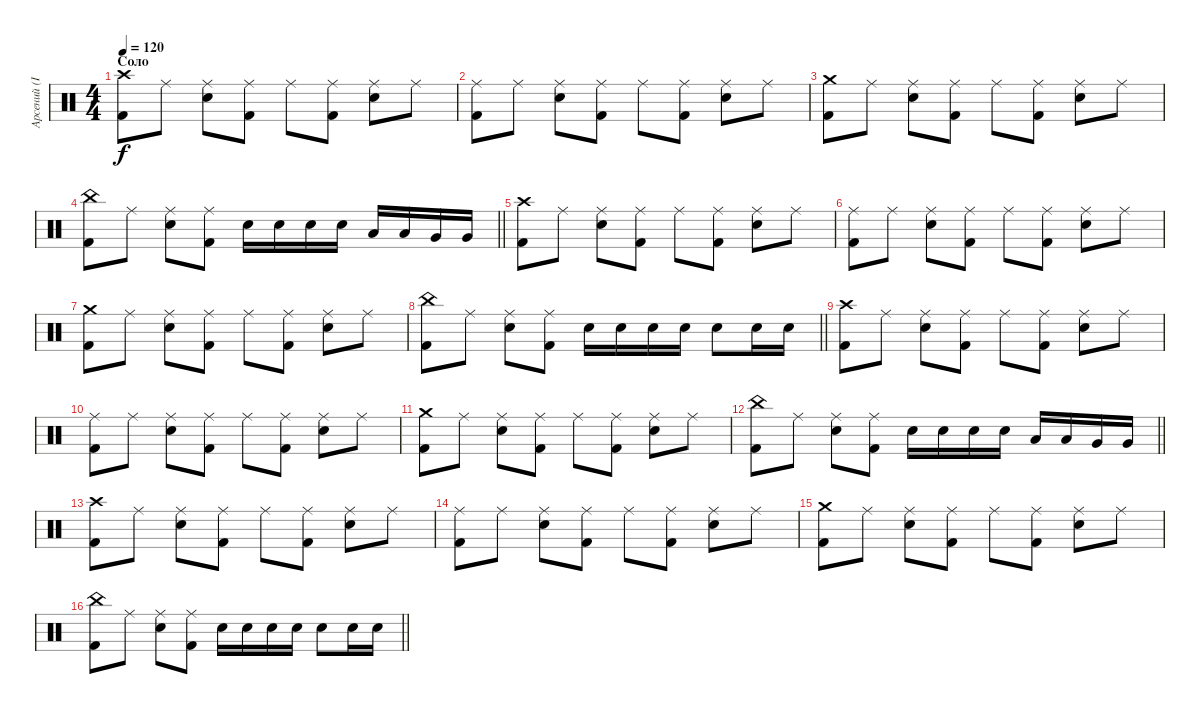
\track ("Арсений (Idler) Ударные" "Арсений (I") {instrument percussion}
\staff {score}
\articulation defaults
\ts (4 4)
\section ("" "Соло")
\tempo 120
\clef neutral
\ks c
("Crash high (hit)" "Kick (hit) 2").8{dy f} "Ride (middle)".8 ("Ride (middle)" "Snare (hit) 2").8 ("Ride (middle)" "Kick (hit) 2").8 "Ride (middle)".8 ("Ride (middle)" "Kick (hit) 2").8 ("Ride (middle)" "Snare (hit) 2").8 "Ride (middle)".8 |
("Ride (middle)" "Kick (hit) 2").8 "Ride (middle)".8 ("Ride (middle)" "Snare (hit) 2").8 ("Ride (middle)" "Kick (hit) 2").8 "Ride (middle)".8 ("Ride (middle)" "Kick (hit) 2").8 ("Ride (middle)" "Snare (hit) 2").8 "Ride (middle)".8 |
("Crash medium (hit)" "Kick (hit) 2").8 "Ride (middle)".8 ("Ride (middle)" "Snare (hit) 2").8 ("Ride (middle)" "Kick (hit) 2").8 "Ride (middle)".8 ("Ride (middle)" "Kick (hit) 2").8 ("Ride (middle)" "Snare (hit) 2").8 "Ride (middle)".8 |
\barLineRight lightlight
("China (hit)" "Kick (hit) 2").8 "Ride (middle)".8 ("Ride (middle)" "Snare (hit) 2").8 ("Ride (middle)" "Kick (hit) 2").8 "Snare (hit) 2".16 "Snare (hit) 2".16 "Snare (hit) 2".16 "Snare (hit) 2".16 "Low Tom (hit)".16 "Low Tom (hit)".16 "Very Low Tom (hit)".16 "Very Low Tom (hit)".16 |
("Crash high (hit)" "Kick (hit) 2").8 "Ride (middle)".8 ("Ride (middle)" "Snare (hit) 2").8 ("Ride (middle)" "Kick (hit) 2").8 "Ride (middle)".8 ("Ride (middle)" "Kick (hit) 2").8 ("Ride (middle)" "Snare (hit) 2").8 "Ride (middle)".8 |
("Ride (middle)" "Kick (hit) 2").8 "Ride (middle)".8 ("Ride (middle)" "Snare (hit) 2").8 ("Ride (middle)" "Kick (hit) 2").8 "Ride (middle)".8 ("Ride (middle)" "Kick (hit) 2").8 ("Ride (middle)" "Snare (hit) 2").8 "Ride (middle)".8 |
("Crash medium (hit)" "Kick (hit) 2").8 "Ride (middle)".8 ("Ride (middle)" "Snare (hit) 2").8 ("Ride (middle)" "Kick (hit) 2").8 "Ride (middle)".8 ("Ride (middle)" "Kick (hit) 2").8 ("Ride (middle)" "Snare (hit) 2").8 "Ride (middle)".8 |
\barLineRight lightlight
("China (hit)" "Kick (hit) 2").8 "Ride (middle)".8 ("Ride (middle)" "Snare (hit) 2").8 ("Ride (middle)" "Kick (hit) 2").8 "Snare (hit) 2".16 "Snare (hit) 2".16 "Snare (hit) 2".16 "Snare (hit) 2".16 "Snare (hit) 2".8 "Snare (hit) 2".16 "Snare (hit) 2".16 |
("Crash high (hit)" "Kick (hit) 2").8 "Ride (middle)".8 ("Ride (middle)" "Snare (hit) 2").8 ("Ride (middle)" "Kick (hit) 2").8 "Ride (middle)".8 ("Ride (middle)" "Kick (hit) 2").8 ("Ride (middle)" "Snare (hit) 2").8 "Ride (middle)".8 |
("Ride (middle)" "Kick (hit) 2").8 "Ride (middle)".8 ("Ride (middle)" "Snare (hit) 2").8 ("Ride (middle)" "Kick (hit) 2").8 "Ride (middle)".8 ("Ride (middle)" "Kick (hit) 2").8 ("Ride (middle)" "Snare (hit) 2").8 "Ride (middle)".8 |
("Crash medium (hit)" "Kick (hit) 2").8 "Ride (middle)".8 ("Ride (middle)" "Snare (hit) 2").8 ("Ride (middle)" "Kick (hit) 2").8 "Ride (middle)".8 ("Ride (middle)" "Kick (hit) 2").8 ("Ride (middle)" "Snare (hit) 2").8 "Ride (middle)".8 |
\barLineRight lightlight
("China (hit)" "Kick (hit) 2").8 "Ride (middle)".8 ("Ride (middle)" "Snare (hit) 2").8 ("Ride (middle)" "Kick (hit) 2").8 "Snare (hit) 2".16 "Snare (hit) 2".16 "Snare (hit) 2".16 "Snare (hit) 2".16 "Low Tom (hit)".16 "Low Tom (hit)".16 "Very Low Tom (hit)".16 "Very Low Tom (hit)".16 |
("Crash high (hit)" "Kick (hit) 2").8 "Ride (middle)".8 ("Ride (middle)" "Snare (hit) 2").8 ("Ride (middle)" "Kick (hit) 2").8 "Ride (middle)".8 ("Ride (middle)" "Kick (hit) 2").8 ("Ride (middle)" "Snare (hit) 2").8 "Ride (middle)".8 |
("Ride (middle)" "Kick (hit) 2").8 "Ride (middle)".8 ("Ride (middle)" "Snare (hit) 2").8 ("Ride (middle)" "Kick (hit) 2").8 "Ride (middle)".8 ("Ride (middle)" "Kick (hit) 2").8 ("Ride (middle)" "Snare (hit) 2").8 "Ride (middle)".8 |
("Crash medium (hit)" "Kick (hit) 2").8 "Ride (middle)".8 ("Ride (middle)" "Snare (hit) 2").8 ("Ride (middle)" "Kick (hit) 2").8 "Ride (middle)".8 ("Ride (middle)" "Kick (hit) 2").8 ("Ride (middle)" "Snare (hit) 2").8 "Ride (middle)".8 |
\barLineRight lightlight
("China (hit)" "Kick (hit) 2").8 "Ride (middle)".8 ("Ride (middle)" "Snare (hit) 2").8 ("Ride (middle)" "Kick (hit) 2").8 "Snare (hit) 2".16 "Snare (hit) 2".16 "Snare (hit) 2".16 "Snare (hit) 2".16 "Snare (hit) 2".8 "Snare (hit) 2".16 "Snare (hit) 2".16
